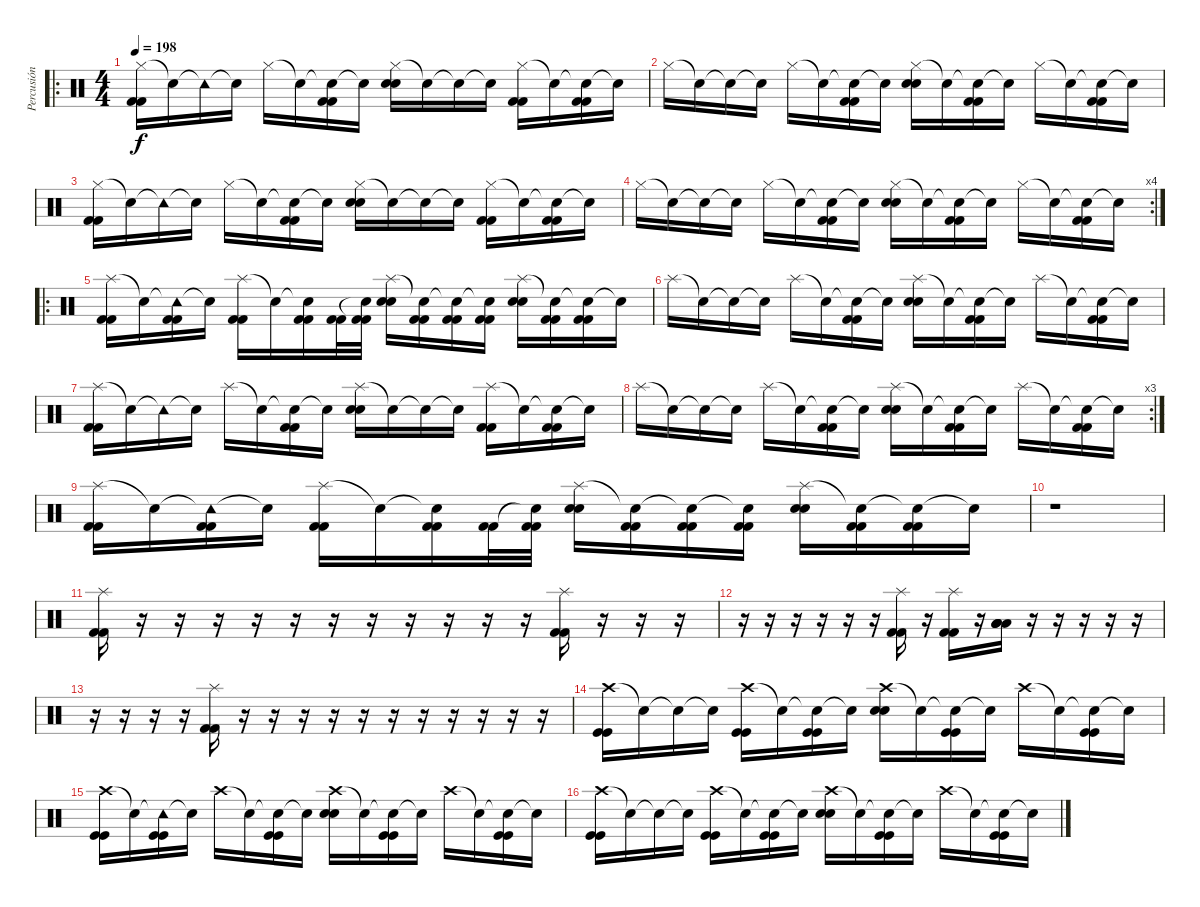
\track ("Percusión" "Percusión") {instrument percussion}
\staff {score}
\articulation defaults
\ro
\ts (4 4)
\tempo 198
\clef neutral
\ks c
("Hi-Hat (closed)" "Kick (hit) 2" "Kick (hit) 2").16{dy f} "Snare (hit)"{t}.16 "Tambourine (hit)"{t}.16 "Snare (hit)"{t}.16 "Hi-Hat (closed)".16 "Snare (hit)"{t}.16 ("Snare (hit)"{t} "Kick (hit) 2" "Kick (hit) 2").16 "Snare (hit)"{t}.16 ("Hi-Hat (closed)" "Electric Snare (hit)" "Electric Snare (hit)").16 "Snare (hit)"{t}.16 "Snare (hit)"{t}.16 "Snare (hit)"{t}.16 ("Hi-Hat (closed)" "Kick (hit) 2" "Kick (hit) 2").16 "Snare (hit)"{t}.16 ("Snare (hit)"{t} "Kick (hit) 2" "Kick (hit) 2").16 "Snare (hit)"{t}.16 |
"Hi-Hat (closed)".16 "Snare (hit)"{t}.16 "Snare (hit)"{t}.16 "Snare (hit)"{t}.16 "Hi-Hat (closed)".16 "Snare (hit)"{t}.16 ("Snare (hit)"{t} "Kick (hit) 2" "Kick (hit) 2").16 "Snare (hit)"{t}.16 ("Hi-Hat (closed)" "Electric Snare (hit)" "Electric Snare (hit)").16 "Snare (hit)"{t}.16 ("Snare (hit)"{t} "Kick (hit) 2" "Kick (hit) 2").16 "Snare (hit)"{t}.16 "Hi-Hat (closed)".16 "Snare (hit)"{t}.16 ("Snare (hit)"{t} "Kick (hit) 2" "Kick (hit) 2").16 "Snare (hit)"{t}.16 |
("Hi-Hat (closed)" "Kick (hit) 2" "Kick (hit) 2").16 "Snare (hit)"{t}.16 "Tambourine (hit)"{t}.16 "Snare (hit)"{t}.16 "Hi-Hat (closed)".16 "Snare (hit)"{t}.16 ("Snare (hit)"{t} "Kick (hit) 2" "Kick (hit) 2").16 "Snare (hit)"{t}.16 ("Hi-Hat (closed)" "Electric Snare (hit)" "Electric Snare (hit)").16 "Snare (hit)"{t}.16 "Snare (hit)"{t}.16 "Snare (hit)"{t}.16 ("Hi-Hat (closed)" "Kick (hit) 2" "Kick (hit) 2").16 "Snare (hit)"{t}.16 ("Snare (hit)"{t} "Kick (hit) 2" "Kick (hit) 2").16 "Snare (hit)"{t}.16 |
\rc 4 "Hi-Hat (closed)".16 "Snare (hit)"{t}.16 "Snare (hit)"{t}.16 "Snare (hit)"{t}.16 "Hi-Hat (closed)".16 "Snare (hit)"{t}.16
("Snare (hit)"{t} "Kick (hit) 2" "Kick (hit) 2").16 "Snare (hit)"{t}.16 ("Hi-Hat (closed)" "Electric Snare (hit)" "Electric Snare (hit)").16 "Snare (hit)"{t}.16 ("Snare (hit)"{t} "Kick (hit) 2" "Kick (hit) 2").16 "Snare (hit)"{t}.16 "Hi-Hat (closed)".16 "Snare (hit)"{t}.16 ("Snare (hit)"{t} "Kick (hit) 2" "Kick (hit) 2").16 "Snare (hit)"{t}.16 |
\ro
("Splash (hit)" "Kick (hit) 2" "Kick (hit) 2").16 "Snare (hit)"{t}.16 ("Tambourine (hit)"{t} "Kick (hit) 2" "Kick (hit) 2").16 "Snare (hit)"{t}.16 ("Splash (hit)" "Kick (hit) 2" "Kick (hit) 2").16 "Snare (hit)"{t}.16 ("Snare (hit)"{t} "Kick (hit) 2" "Kick (hit) 2").16 ("Kick (hit) 2" "Kick (hit) 2").32 ("Snare (hit)"{t} "Kick (hit) 2" "Kick (hit) 2").32 ("Splash (hit)" "Electric Snare (hit)" "Electric Snare (hit)").16 ("Snare (hit)"{t} "Kick (hit) 2" "Kick (hit) 2").16 ("Snare (hit)"{t} "Kick (hit) 2" "Kick (hit) 2").16 ("Snare (hit)"{t} "Kick (hit) 2" "Kick (hit) 2").16 ("Splash (hit)" "Electric Snare (hit)" "Electric Snare (hit)").16 ("Snare (hit)"{t} "Kick (hit) 2" "Kick (hit) 2").16 ("Snare (hit)"{t} "Kick (hit) 2" "Kick (hit) 2").16 "Snare (hit)"{t}.16 |
"Splash (hit)".16 "Snare (hit)"{t}.16 "Snare (hit)"{t}.16 "Snare (hit)"{t}.16 "Splash (hit)".16 "Snare (hit)"{t}.16 ("Snare (hit)"{t} "Kick (hit) 2" "Kick (hit) 2").16 "Snare (hit)"{t}.16 ("Splash (hit)" "Electric Snare (hit)" "Electric Snare (hit)").16 "Snare (hit)"{t}.16 ("Snare (hit)"{t} "Kick (hit) 2" "Kick (hit) 2").16 "Snare (hit)"{t}.16 "Splash (hit)".16 "Snare (hit)"{t}.16 ("Snare (hit)"{t} "Kick (hit) 2" "Kick (hit) 2").16 "Snare (hit)"{t}.16 |
("Splash (hit)" "Kick (hit) 2" "Kick (hit) 2").16 "Snare (hit)"{t}.16 "Tambourine (hit)"{t}.16 "Snare (hit)"{t}.16 "Splash (hit)".16 "Snare (hit)"{t}.16 ("Snare (hit)"{t} "Kick (hit) 2" "Kick (hit) 2").16 "Snare (hit)"{t}.16 ("Splash (hit)" "Electric Snare (hit)" "Electric Snare (hit)").16 "Snare (hit)"{t}.16 "Snare (hit)"{t}.16 "Snare (hit)"{t}.16 ("Splash (hit)" "Kick (hit) 2" "Kick (hit) 2").16 "Snare (hit)"{t}.16 ("Snare (hit)"{t} "Kick (hit) 2" "Kick (hit) 2").16 "Snare (hit)"{t}.16 |
\rc 3 "Splash (hit)".16 "Snare (hit)"{t}.16 "Snare (hit)"{t}.16 "Snare (hit)"{t}.16 "Splash (hit)".16 "Snare (hit)"{t}.16
("Snare (hit)"{t} "Kick (hit) 2" "Kick (hit) 2").16 "Snare (hit)"{t}.16 ("Splash (hit)" "Electric Snare (hit)" "Electric Snare (hit)").16 "Snare (hit)"{t}.16 ("Snare (hit)"{t} "Kick (hit) 2" "Kick (hit) 2").16 "Snare (hit)"{t}.16 "Splash (hit)".16 "Snare (hit)"{t}.16 ("Snare (hit)"{t} "Kick (hit) 2" "Kick (hit) 2").16 "Snare (hit)"{t}.16 |
("Splash (hit)" "Kick (hit) 2" "Kick (hit) 2").16 "Snare (hit)"{t}.16 ("Tambourine (hit)"{t} "Kick (hit) 2" "Kick (hit) 2").16 "Snare (hit)"{t}.16 ("Splash (hit)" "Kick (hit) 2" "Kick (hit) 2").16 "Snare (hit)"{t}.16 ("Snare (hit)"{t} "Kick (hit) 2" "Kick (hit) 2").16 ("Kick (hit) 2" "Kick (hit) 2").32 ("Snare (hit)"{t} "Kick (hit) 2" "Kick (hit) 2").32 ("Splash (hit)" "Electric Snare (hit)" "Electric Snare (hit)").16 ("Snare (hit)"{t} "Kick (hit) 2" "Kick (hit) 2").16 ("Snare (hit)"{t} "Kick (hit) 2" "Kick (hit) 2").16 ("Snare (hit)"{t} "Kick (hit) 2" "Kick (hit) 2").16 ("Splash (hit)" "Electric Snare (hit)" "Electric Snare (hit)").16 ("Snare (hit)"{t} "Kick (hit) 2" "Kick (hit) 2").16 ("Snare (hit)"{t} "Kick (hit) 2" "Kick (hit) 2").16 "Snare (hit)"{t}.16 |
r.1 |
("Splash (hit)" "Kick (hit) 2" "Kick (hit) 2").16 r.16 r.16 r.16 r.16 r.16 r.16 r.16 r.16 r.16 r.16 r.16 ("Splash (hit)" "Kick (hit) 2" "Kick (hit) 2").16 r.16 r.16 r.16 |
r.16 r.16 r.16 r.16 r.16 r.16 ("Splash (hit)" "Kick (hit) 2" "Kick (hit) 2").16 r.16 ("Splash (hit)" "Kick (hit) 2" "Kick (hit) 2").16 r.16 ("Low Tom (hit)" "Low Tom (hit)" "Low Tom (hit)" "Low Tom (hit)").16 r.16 r.16 r.16 r.16 r.16 |
r.16 r.16 r.16 r.16 ("Splash (hit)" "Kick (hit) 2" "Kick (hit) 2").16 r.16 r.16 r.16 r.16 r.16 r.16 r.16 r.16 r.16 r.16 r.16 |
("Crash high (hit)" "Kick (hit)" "Kick (hit)").16 "Snare (hit)"{t}.16 "Snare (hit)"{t}.16 "Snare (hit)"{t}.16 ("Crash high (hit)" "Kick (hit)" "Kick (hit)").16 "Snare (hit)"{t}.16 ("Snare (hit)"{t} "Kick (hit)" "Kick (hit)").16 "Snare (hit)"{t}.16 ("Crash high (hit)" "Snare (hit) 2" "Snare (hit) 2").16 "Snare (hit)"{t}.16 ("Snare (hit)"{t} "Kick (hit)" "Kick (hit)").16 "Snare (hit)"{t}.16 "Crash high (hit)".16 "Snare (hit)"{t}.16 ("Snare (hit)"{t} "Kick (hit)" "Kick (hit)").16 "Snare (hit)"{t}.16 |
("Crash high (hit)" "Kick (hit)" "Kick (hit)").16 "Snare (hit)"{t}.16 ("Tambourine (hit)"{t} "Kick (hit)" "Kick (hit)").16 "Snare (hit)"{t}.16 "Crash high (hit)".16 "Snare (hit)"{t}.16 ("Snare (hit)"{t} "Kick (hit)" "Kick (hit)").16 "Snare (hit)"{t}.16 ("Crash high (hit)" "Snare (hit) 2" "Snare (hit) 2").16 "Snare (hit)"{t}.16 ("Snare (hit)"{t} "Kick (hit)" "Kick (hit)").16 "Snare (hit)"{t}.16 "Crash high (hit)".16 "Snare (hit)"{t}.16 ("Snare (hit)"{t} "Kick (hit)" "Kick (hit)").16 "Snare (hit)"{t}.16 |
("Crash high (hit)" "Kick (hit)" "Kick (hit)").16 "Snare (hit)"{t}.16 "Snare (hit)"{t}.16 "Snare (hit)"{t}.16 ("Crash high (hit)" "Kick (hit)" "Kick (hit)").16 "Snare (hit)"{t}.16 ("Snare (hit)"{t} "Kick (hit)" "Kick (hit)").16 "Snare (hit)"{t}.16 ("Crash high (hit)" "Snare (hit) 2" "Snare (hit) 2").16 "Snare (hit)"{t}.16 ("Snare (hit)"{t} "Kick (hit)" "Kick (hit)").16 "Snare (hit)"{t}.16 "Crash high (hit)".16 "Snare (hit)"{t}.16 ("Snare (hit)"{t} "Kick (hit)" "Kick (hit)").16 "Snare (hit)"{t}.16
